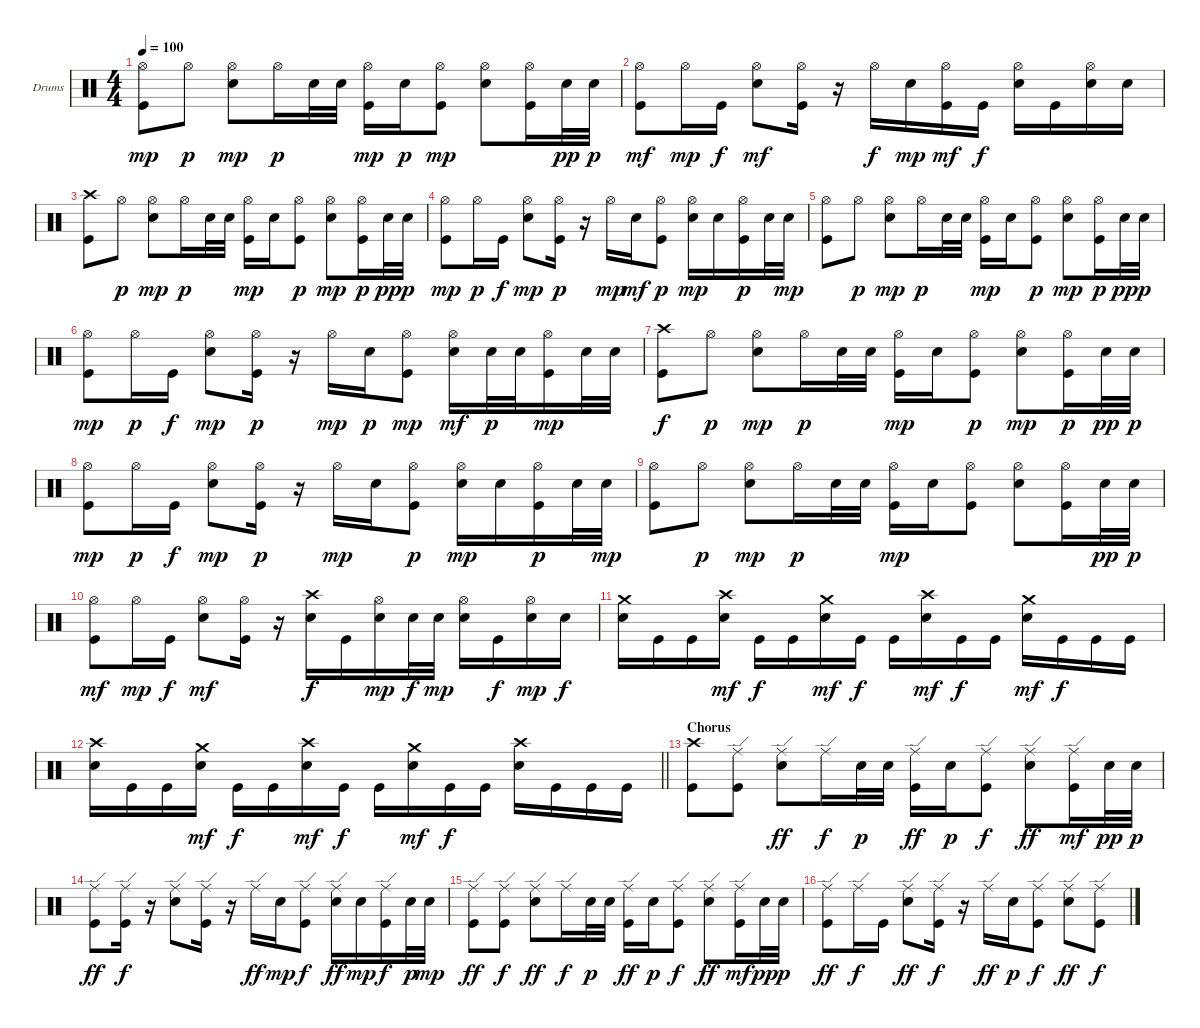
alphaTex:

\bracketExtendMode groupsimilarinstruments
\firstSystemTrackNameOrientation horizontal
\otherSystemsTrackNameOrientation horizontal
\track ("Drumkit" "Drums") {solo instrument percussion}
\staff {score}
\articulation defaults
\ts (4 4)
\tempo 100
\clef neutral
\ks c
("Hi-Hat (open)" "Kick (hit)").8{dy mp} "Hi-Hat (open)".8{dy p} ("Hi-Hat (open)" "Snare (hit) 2").8{dy mp} "Hi-Hat (open)".16{dy p} "Snare (hit) 2".32 "Snare (hit) 2".32 ("Hi-Hat (open)" "Kick (hit)").16{dy mp} "Snare (hit) 2".16{dy p} ("Hi-Hat (open)" "Kick (hit)").8{dy mp} ("Hi-Hat (open)" "Snare (hit) 2").8 ("Hi-Hat (open)" "Kick (hit)").16 "Snare (hit) 2".32{dy pp} "Snare (hit) 2".32{dy p} |
("Hi-Hat (open)" "Kick (hit)").8{dy mf} "Hi-Hat (open)".16{dy mp} "Kick (hit)".16{dy f} ("Hi-Hat (open)" "Snare (hit) 2").8{dy mf} ("Hi-Hat (open)" "Kick (hit)").16 r.16 "Hi-Hat (open)".16{dy f} "Snare (hit) 2".16{dy mp} ("Hi-Hat (open)" "Kick (hit)").16{dy mf} "Kick (hit)".16{dy f} ("Hi-Hat (open)" "Snare (hit) 2").16 "Kick (hit)".16 ("Hi-Hat (open)" "Snare (hit) 2").16 "Snare (hit) 2".16 |
("Crash high (hit)" "Kick (hit)").8 "Hi-Hat (open)".8{dy p} ("Hi-Hat (open)" "Snare (hit) 2").8{dy mp} "Hi-Hat (open)".16{dy p} "Snare (hit) 2".32 "Snare (hit) 2".32 ("Hi-Hat (open)" "Kick (hit)").16{dy mp} "Snare (hit) 2".16 ("Hi-Hat (open)" "Kick (hit)").8{dy p} ("Hi-Hat (open)" "Snare (hit) 2").8{dy mp} ("Hi-Hat (open)" "Kick (hit)").16{dy p} "Snare (hit) 2".32{dy pp} "Snare (hit) 2".32{dy p} |
("Hi-Hat (open)" "Kick (hit)").8{dy mp} "Hi-Hat (open)".16{dy p} "Kick (hit)".16{dy f} ("Hi-Hat (open)" "Snare (hit) 2").8{dy mp} ("Hi-Hat (open)" "Kick (hit)").16{dy p} r.16 "Hi-Hat (open)".16{dy mp} "Snare (hit) 2".16{dy mf} ("Hi-Hat (open)" "Kick (hit)").8{dy p} ("Hi-Hat (open)" "Snare (hit) 2").16{dy mp} "Snare (hit) 2".16 ("Hi-Hat (open)" "Kick (hit)").16{dy p} "Snare (hit) 2".32 "Snare (hit) 2".32{dy mp} |
("Hi-Hat (open)" "Kick (hit)").8 "Hi-Hat (open)".8{dy p} ("Hi-Hat (open)" "Snare (hit) 2").8{dy mp} "Hi-Hat (open)".16{dy p} "Snare (hit) 2".32 "Snare (hit) 2".32 ("Hi-Hat (open)" "Kick (hit)").16{dy mp} "Snare (hit) 2".16 ("Hi-Hat (open)" "Kick (hit)").8{dy p} ("Hi-Hat (open)" "Snare (hit) 2").8{dy mp} ("Hi-Hat (open)" "Kick (hit)").16{dy p} "Snare (hit) 2".32{dy pp} "Snare (hit) 2".32{dy p} |
("Hi-Hat (open)" "Kick (hit)").8{dy mp} "Hi-Hat (open)".16{dy p} "Kick (hit)".16{dy f} ("Hi-Hat (open)" "Snare (hit) 2").8{dy mp} ("Hi-Hat (open)" "Kick (hit)").16{dy p} r.16 "Hi-Hat (open)".16{dy mp} "Snare (hit) 2".16{dy p} ("Hi-Hat (open)" "Kick (hit)").8{dy mp} ("Hi-Hat (open)" "Snare (hit) 2").16{dy mf} "Snare (hit) 2".32{dy p} "Snare (hit) 2".32 ("Hi-Hat (open)" "Kick (hit)").16{dy mp} "Snare (hit) 2".32 "Snare (hit) 2".32 |
("Crash high (hit)" "Kick (hit)").8{dy f} "Hi-Hat (open)".8{dy p} ("Hi-Hat (open)" "Snare (hit) 2").8{dy mp} "Hi-Hat (open)".16{dy p} "Snare (hit) 2".32 "Snare (hit) 2".32 ("Hi-Hat (open)" "Kick (hit)").16{dy mp} "Snare (hit) 2".16 ("Hi-Hat (open)" "Kick (hit)").8{dy p} ("Hi-Hat (open)" "Snare (hit) 2").8{dy mp} ("Hi-Hat (open)" "Kick (hit)").16{dy p} "Snare (hit) 2".32{dy pp} "Snare (hit) 2".32{dy p} |
("Hi-Hat (open)" "Kick (hit)").8{dy mp} "Hi-Hat (open)".16{dy p} "Kick (hit)".16{dy f} ("Hi-Hat (open)" "Snare (hit) 2").8{dy mp} ("Hi-Hat (open)" "Kick (hit)").16{dy p} r.16 "Hi-Hat (open)".16{dy mp} "Snare (hit) 2".16 ("Hi-Hat (open)" "Kick (hit)").8{dy p} ("Hi-Hat (open)" "Snare (hit) 2").16{dy mp} "Snare (hit) 2".16 ("Hi-Hat (open)" "Kick (hit)").16{dy p} "Snare (hit) 2".32 "Snare (hit) 2".32{dy mp} |
("Hi-Hat (open)" "Kick (hit)").8 "Hi-Hat (open)".8{dy p} ("Hi-Hat (open)" "Snare (hit) 2").8{dy mp} "Hi-Hat (open)".16{dy p} "Snare (hit) 2".32 "Snare (hit) 2".32 ("Hi-Hat (open)" "Kick (hit)").16{dy mp} "Snare (hit) 2".16 ("Hi-Hat (open)" "Kick (hit)").8 ("Hi-Hat (open)" "Snare (hit) 2").8 ("Hi-Hat (open)" "Kick (hit)").16 "Snare (hit) 2".32{dy pp} "Snare (hit) 2".32{dy p} |
("Hi-Hat (open)" "Kick (hit)").8{dy mf} "Hi-Hat (open)".16{dy mp} "Kick (hit)".16{dy f} ("Hi-Hat (open)" "Snare (hit) 2").8{dy mf} ("Hi-Hat (open)" "Kick (hit)").16 r.16 ("Crash high (hit)" "Snare (hit) 2").16{dy f} "Kick (hit)".16 ("Hi-Hat (open)" "Snare (hit) 2").16{dy mp} "Snare (hit) 2".32{dy f} "Snare (hit) 2".32{dy mp} ("Hi-Hat (open)" "Snare (hit) 2").16 "Kick (hit)".16{dy f} ("Hi-Hat (open)" "Snare (hit) 2").16{dy mp} "Snare (hit) 2".16{dy f} |
("Crash medium (hit)" "Snare (hit) 2").16 "Kick (hit)".16 "Kick (hit)".16 ("Crash high (hit)" "Snare (hit) 2").16{dy mf} "Kick (hit)".16{dy f} "Kick (hit)".16 ("Crash medium (hit)" "Snare (hit) 2").16{dy mf} "Kick (hit)".16{dy f} "Kick (hit)".16 ("Crash high (hit)" "Snare (hit) 2").16{dy mf} "Kick (hit)".16{dy f} "Kick (hit)".16 ("Crash medium (hit)" "Snare (hit) 2").16{dy mf} "Kick (hit)".16{dy f} "Kick (hit)".16 "Kick (hit)".16 |
\barLineRight lightlight
("Crash high (hit)" "Snare (hit) 2").16 "Kick (hit)".16 "Kick (hit)".16 ("Crash medium (hit)" "Snare (hit) 2").16{dy mf} "Kick (hit)".16{dy f} "Kick (hit)".16 ("Crash high (hit)" "Snare (hit) 2").16{dy mf} "Kick (hit)".16{dy f} "Kick (hit)".16 ("Crash medium (hit)" "Snare (hit) 2").16{dy mf} "Kick (hit)".16{dy f} "Kick (hit)".16 ("Crash high (hit)" "Snare (hit) 2").16 "Kick (hit)".16 "Kick (hit)".16 "Kick (hit)".16 |
\section ("" "Chorus")
("Crash high (hit)" "Kick (hit)").8 ("Ride (edge)" "Kick (hit)").8 ("Ride (edge)" "Snare (hit) 2").8{dy ff} "Ride (edge)".16{dy f} "Snare (hit) 2".32{dy p} "Snare (hit) 2".32 ("Ride (edge)" "Kick (hit)").16{dy ff} "Snare (hit) 2".16{dy p} ("Ride (edge)" "Kick (hit)").8{dy f} ("Ride (edge)" "Snare (hit) 2").8{dy ff} ("Ride (edge)" "Kick (hit)").16{dy mf} "Snare (hit) 2".32{dy pp} "Snare (hit) 2".32{dy p} |
("Ride (edge)" "Kick (hit)").8{dy ff} ("Ride (edge)" "Kick (hit)").16{dy f} r.16 ("Ride (edge)" "Snare (hit) 2").8 ("Ride (edge)" "Kick (hit)").16 r.16 "Ride (edge)".16{dy ff} "Snare (hit) 2".16{dy mp} ("Ride (edge)" "Kick (hit)").8{dy f} ("Ride (edge)" "Snare (hit) 2").16{dy ff} "Snare (hit) 2".16{dy mp} ("Ride (edge)" "Kick (hit)").16{dy f} "Snare (hit) 2".32{dy p} "Snare (hit) 2".32{dy mp} |
("Ride (edge)" "Kick (hit)").8{dy ff} ("Ride (edge)" "Kick (hit)").8{dy f} ("Ride (edge)" "Snare (hit) 2").8{dy ff} "Ride (edge)".16{dy f} "Snare (hit) 2".32{dy p} "Snare (hit) 2".32 ("Ride (edge)" "Kick (hit)").16{dy ff} "Snare (hit) 2".16{dy p} ("Ride (edge)" "Kick (hit)").8{dy f} ("Ride (edge)" "Snare (hit) 2").8{dy ff} ("Ride (edge)" "Kick (hit)").16{dy mf} "Snare (hit) 2".32{dy pp} "Snare (hit) 2".32{dy p} |
("Ride (edge)" "Kick (hit)").8{dy ff} "Ride (edge)".16{dy f} "Kick (hit)".16 ("Ride (edge)" "Snare (hit) 2").8{dy ff} ("Ride (edge)" "Kick (hit)").16{dy f} r.16 "Ride (edge)".16{dy ff} "Snare (hit) 2".16{dy p} ("Ride (edge)" "Kick (hit)").8{dy f} ("Ride (edge)" "Snare (hit) 2").8{dy ff} ("Ride (edge)" "Kick (hit)").8{dy f}
